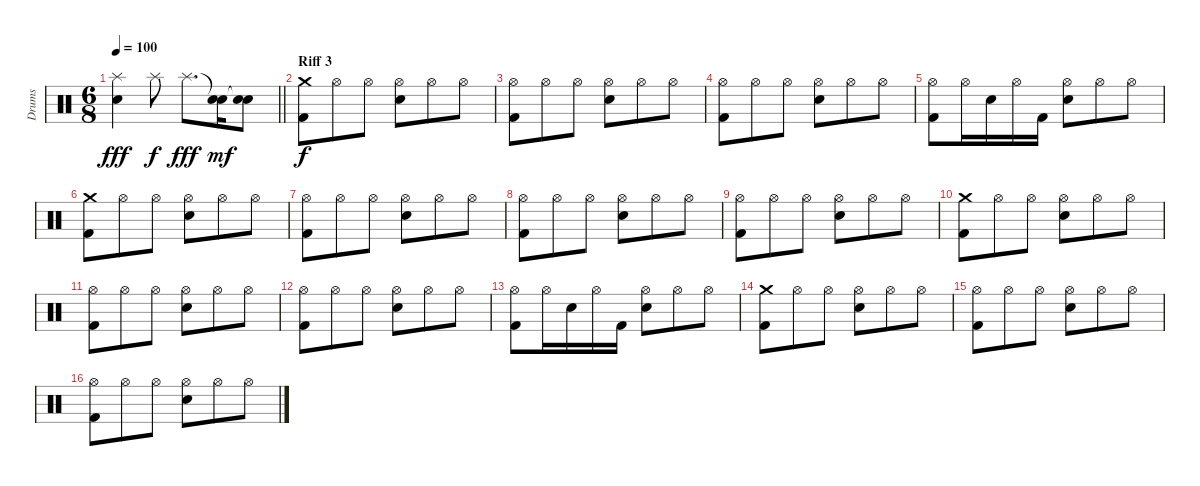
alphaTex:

\track ("Drums" "Drums") {instrument percussion}
\staff {score}
\articulation defaults
\ts (6 8)
\tempo 100
\clef neutral
\barLineRight lightlight
\ks c
("Splash (hit)" "Snare (hit) 2").4{dy fff} "Splash (hit)".8{dy f} "Splash (hit)".8{d dy fff} ("Snare (hit)"{t} "Snare (hit) 2").16{dy mf} ("Snare (hit)"{t} "Snare (hit) 2").8 |
\section ("" "Riff 3")
("Crash medium (hit)" "Kick (hit) 2").8{dy f} "Hi-Hat (open)".8 "Hi-Hat (open)".8 ("Hi-Hat (open)" "Snare (hit) 2").8 "Hi-Hat (open)".8 "Hi-Hat (open)".8 |
("Hi-Hat (open)" "Kick (hit) 2").8 "Hi-Hat (open)".8 "Hi-Hat (open)".8 ("Hi-Hat (open)" "Snare (hit) 2").8 "Hi-Hat (open)".8 "Hi-Hat (open)".8 |
("Hi-Hat (open)" "Kick (hit) 2").8 "Hi-Hat (open)".8 "Hi-Hat (open)".8 ("Hi-Hat (open)" "Snare (hit) 2").8 "Hi-Hat (open)".8 "Hi-Hat (open)".8 |
("Hi-Hat (open)" "Kick (hit) 2").8 "Hi-Hat (open)".16 "Snare (hit) 2".16 "Hi-Hat (open)".16 "Kick (hit) 2".16 ("Hi-Hat (open)" "Snare (hit) 2").8 "Hi-Hat (open)".8 "Hi-Hat (open)".8 |
("Crash medium (hit)" "Kick (hit) 2").8 "Hi-Hat (open)".8 "Hi-Hat (open)".8 ("Hi-Hat (open)" "Snare (hit) 2").8 "Hi-Hat (open)".8 "Hi-Hat (open)".8 |
("Hi-Hat (open)" "Kick (hit) 2").8 "Hi-Hat (open)".8 "Hi-Hat (open)".8 ("Hi-Hat (open)" "Snare (hit) 2").8 "Hi-Hat (open)".8 "Hi-Hat (open)".8 |
("Hi-Hat (open)" "Kick (hit) 2").8 "Hi-Hat (open)".8 "Hi-Hat (open)".8 ("Hi-Hat (open)" "Snare (hit) 2").8 "Hi-Hat (open)".8 "Hi-Hat (open)".8 |
("Hi-Hat (open)" "Kick (hit) 2").8 "Hi-Hat (open)".8 "Hi-Hat (open)".8 ("Hi-Hat (open)" "Snare (hit) 2").8 "Hi-Hat (open)".8 "Hi-Hat (open)".8 |
("Crash medium (hit)" "Kick (hit) 2").8 "Hi-Hat (open)".8 "Hi-Hat (open)".8 ("Hi-Hat (open)" "Snare (hit) 2").8 "Hi-Hat (open)".8 "Hi-Hat (open)".8 |
("Hi-Hat (open)" "Kick (hit) 2").8 "Hi-Hat (open)".8 "Hi-Hat (open)".8 ("Hi-Hat (open)" "Snare (hit) 2").8 "Hi-Hat (open)".8 "Hi-Hat (open)".8 |
("Hi-Hat (open)" "Kick (hit) 2").8 "Hi-Hat (open)".8 "Hi-Hat (open)".8 ("Hi-Hat (open)" "Snare (hit) 2").8 "Hi-Hat (open)".8 "Hi-Hat (open)".8 |
("Hi-Hat (open)" "Kick (hit) 2").8 "Hi-Hat (open)".16 "Snare (hit) 2".16 "Hi-Hat (open)".16 "Kick (hit) 2".16 ("Hi-Hat (open)" "Snare (hit) 2").8 "Hi-Hat (open)".8 "Hi-Hat (open)".8 |
("Crash medium (hit)" "Kick (hit) 2").8 "Hi-Hat (open)".8 "Hi-Hat (open)".8 ("Hi-Hat (open)" "Snare (hit) 2").8 "Hi-Hat (open)".8 "Hi-Hat (open)".8 |
("Hi-Hat (open)" "Kick (hit) 2").8 "Hi-Hat (open)".8 "Hi-Hat (open)".8 ("Hi-Hat (open)" "Snare (hit) 2").8 "Hi-Hat (open)".8 "Hi-Hat (open)".8 |
("Hi-Hat (open)" "Kick (hit) 2").8 "Hi-Hat (open)".8 "Hi-Hat (open)".8 ("Hi-Hat (open)" "Snare (hit) 2").8 "Hi-Hat (open)".8 "Hi-Hat (open)".8
